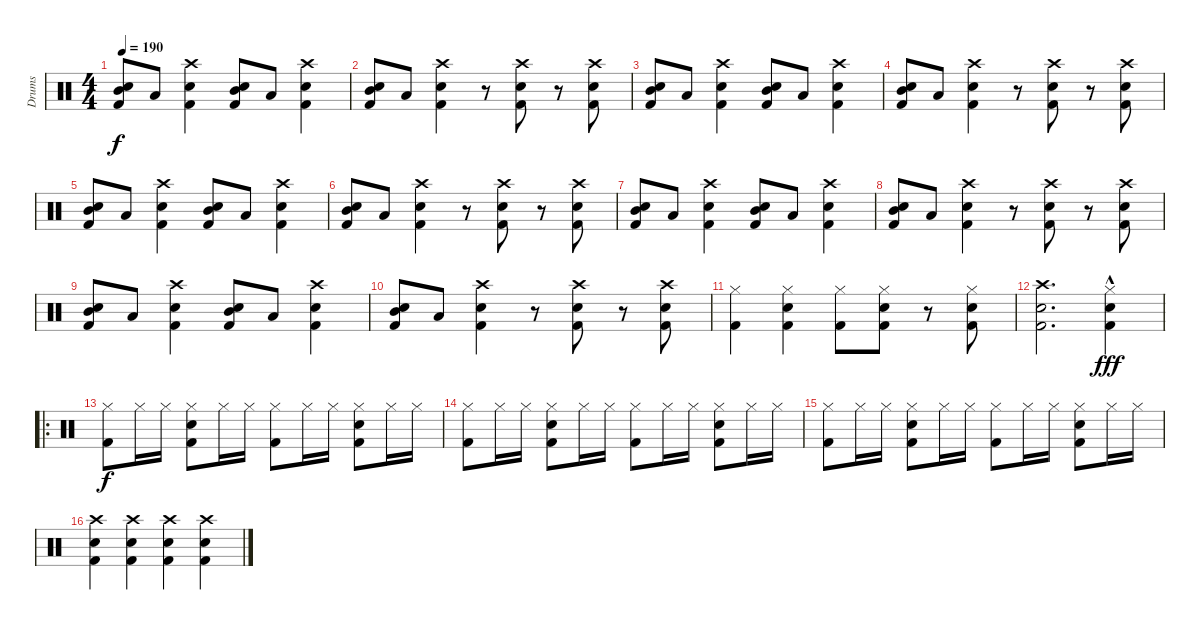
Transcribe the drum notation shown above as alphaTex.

\track ("Drums" "Drums") {instrument percussion}
\staff {score}
\articulation defaults
\ts (4 4)
\tempo 190
\clef neutral
\ks c
("Kick (hit) 2" "Mid Tom (hit)" "Snare (hit) 2").8{dy f} "Low Tom (hit)".8 ("Kick (hit) 2" "Snare (hit) 2" "Crash high (hit)").4 ("Kick (hit) 2" "Mid Tom (hit)" "Snare (hit) 2").8 "Low Tom (hit)".8 ("Kick (hit) 2" "Snare (hit) 2" "Crash high (hit)").4 |
("Kick (hit) 2" "Mid Tom (hit)" "Snare (hit) 2").8 "Low Tom (hit)".8 ("Kick (hit) 2" "Snare (hit) 2" "Crash high (hit)").4 r.8 ("Kick (hit) 2" "Snare (hit) 2" "Crash high (hit)").8 r.8 ("Kick (hit) 2" "Snare (hit) 2" "Crash high (hit)").8 |
("Kick (hit) 2" "Mid Tom (hit)" "Snare (hit) 2").8 "Low Tom (hit)".8 ("Kick (hit) 2" "Snare (hit) 2" "Crash high (hit)").4 ("Kick (hit) 2" "Mid Tom (hit)" "Snare (hit) 2").8 "Low Tom (hit)".8 ("Kick (hit) 2" "Snare (hit) 2" "Crash high (hit)").4 |
("Kick (hit) 2" "Mid Tom (hit)" "Snare (hit) 2").8 "Low Tom (hit)".8 ("Kick (hit) 2" "Snare (hit) 2" "Crash high (hit)").4 r.8 ("Kick (hit) 2" "Snare (hit) 2" "Crash high (hit)").8 r.8 ("Kick (hit) 2" "Snare (hit) 2" "Crash high (hit)").8 |
("Kick (hit) 2" "Mid Tom (hit)" "Snare (hit) 2").8 "Low Tom (hit)".8 ("Kick (hit) 2" "Snare (hit) 2" "Crash high (hit)").4 ("Kick (hit) 2" "Mid Tom (hit)" "Snare (hit) 2").8 "Low Tom (hit)".8 ("Kick (hit) 2" "Snare (hit) 2" "Crash high (hit)").4 |
("Kick (hit) 2" "Mid Tom (hit)" "Snare (hit) 2").8 "Low Tom (hit)".8 ("Kick (hit) 2" "Snare (hit) 2" "Crash high (hit)").4 r.8 ("Kick (hit) 2" "Snare (hit) 2" "Crash high (hit)").8 r.8 ("Kick (hit) 2" "Snare (hit) 2" "Crash high (hit)").8 |
("Kick (hit) 2" "Mid Tom (hit)" "Snare (hit) 2").8 "Low Tom (hit)".8 ("Kick (hit) 2" "Snare (hit) 2" "Crash high (hit)").4 ("Kick (hit) 2" "Mid Tom (hit)" "Snare (hit) 2").8 "Low Tom (hit)".8 ("Kick (hit) 2" "Snare (hit) 2" "Crash high (hit)").4 |
("Kick (hit) 2" "Mid Tom (hit)" "Snare (hit) 2").8 "Low Tom (hit)".8 ("Kick (hit) 2" "Snare (hit) 2" "Crash high (hit)").4 r.8 ("Kick (hit) 2" "Snare (hit) 2" "Crash high (hit)").8 r.8 ("Kick (hit) 2" "Snare (hit) 2" "Crash high (hit)").8 |
("Kick (hit) 2" "Mid Tom (hit)" "Snare (hit) 2").8 "Low Tom (hit)".8 ("Kick (hit) 2" "Snare (hit) 2" "Crash high (hit)").4 ("Kick (hit) 2" "Mid Tom (hit)" "Snare (hit) 2").8 "Low Tom (hit)".8 ("Kick (hit) 2" "Snare (hit) 2" "Crash high (hit)").4 |
("Kick (hit) 2" "Mid Tom (hit)" "Snare (hit) 2").8 "Low Tom (hit)".8 ("Kick (hit) 2" "Snare (hit) 2" "Crash high (hit)").4 r.8 ("Kick (hit) 2" "Snare (hit) 2" "Crash high (hit)").8 r.8 ("Kick (hit) 2" "Snare (hit) 2" "Crash high (hit)").8 |
("Kick (hit) 2" "Hi-Hat (closed)").4 ("Kick (hit) 2" "Snare (hit) 2" "Hi-Hat (closed)").4 ("Kick (hit) 2" "Hi-Hat (closed)").8 ("Kick (hit) 2" "Snare (hit) 2" "Hi-Hat (closed)").8 r.8 ("Kick (hit) 2" "Snare (hit) 2" "Hi-Hat (closed)").8 |
("Kick (hit) 2" "Snare (hit) 2" "Crash high (hit)").2{d} ("Kick (hit) 2"{hac} "Snare (hit) 2"{hac} "Hi-Hat (closed)"{hac}).4{dy fff} |
\ro
("Kick (hit) 2" "Hi-Hat (closed)").8{dy f} "Hi-Hat (closed)".16 "Hi-Hat (closed)".16 ("Kick (hit) 2" "Snare (hit) 2" "Hi-Hat (closed)").8 "Hi-Hat (closed)".16 "Hi-Hat (closed)".16 ("Kick (hit) 2" "Hi-Hat (closed)").8 "Hi-Hat (closed)".16 "Hi-Hat (closed)".16 ("Kick (hit) 2" "Snare (hit) 2" "Hi-Hat (closed)").8 "Hi-Hat (closed)".16 "Hi-Hat (closed)".16 |
("Kick (hit) 2" "Hi-Hat (closed)").8 "Hi-Hat (closed)".16 "Hi-Hat (closed)".16 ("Kick (hit) 2" "Snare (hit) 2" "Hi-Hat (closed)").8 "Hi-Hat (closed)".16 "Hi-Hat (closed)".16 ("Kick (hit) 2" "Hi-Hat (closed)").8 "Hi-Hat (closed)".16 "Hi-Hat (closed)".16 ("Kick (hit) 2" "Snare (hit) 2" "Hi-Hat (closed)").8 "Hi-Hat (closed)".16 "Hi-Hat (closed)".16 |
("Kick (hit) 2" "Hi-Hat (closed)").8 "Hi-Hat (closed)".16 "Hi-Hat (closed)".16 ("Kick (hit) 2" "Snare (hit) 2" "Hi-Hat (closed)").8 "Hi-Hat (closed)".16 "Hi-Hat (closed)".16 ("Kick (hit) 2" "Hi-Hat (closed)").8 "Hi-Hat (closed)".16 "Hi-Hat (closed)".16 ("Kick (hit) 2" "Snare (hit) 2" "Hi-Hat (closed)").8 "Hi-Hat (closed)".16 "Hi-Hat (closed)".16 |
("Kick (hit) 2" "Snare (hit) 2" "Crash high (hit)").4 ("Kick (hit) 2" "Snare (hit) 2" "Crash high (hit)").4 ("Kick (hit) 2" "Snare (hit) 2" "Crash high (hit)").4 ("Kick (hit) 2" "Snare (hit) 2" "Crash high (hit)").4
